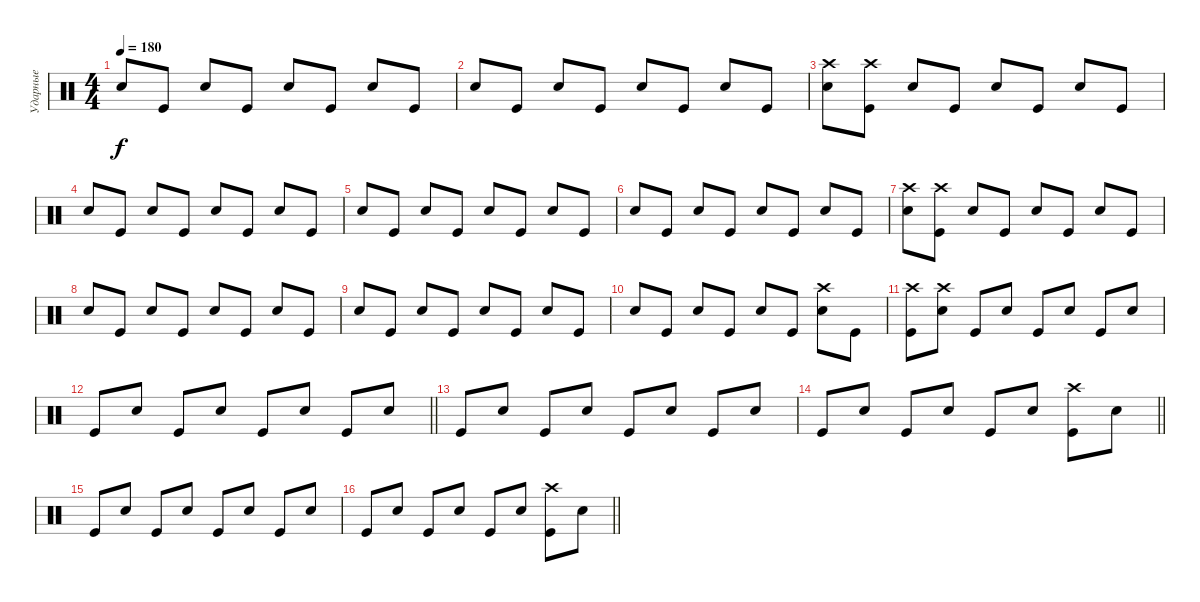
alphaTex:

\track ("Ударные" "Ударные") {instrument percussion}
\staff {score}
\articulation defaults
\ts (4 4)
\tempo 180
\clef neutral
\ks c "Snare (hit) 2".8{dy f} "Kick (hit)".8 "Snare (hit) 2".8 "Kick (hit)".8 "Snare (hit) 2".8 "Kick (hit)".8 "Snare (hit) 2".8 "Kick (hit)".8
|
"Snare (hit) 2".8 "Kick (hit)".8 "Snare (hit) 2".8 "Kick (hit)".8 "Snare (hit) 2".8 "Kick (hit)".8 "Snare (hit) 2".8 "Kick (hit)".8 |
("Crash high (hit)" "Snare (hit) 2").8 ("Crash high (hit)" "Kick (hit)").8 "Snare (hit) 2".8 "Kick (hit)".8 "Snare (hit) 2".8 "Kick (hit)".8 "Snare (hit) 2".8 "Kick (hit)".8 |
"Snare (hit) 2".8 "Kick (hit)".8 "Snare (hit) 2".8 "Kick (hit)".8 "Snare (hit) 2".8 "Kick (hit)".8 "Snare (hit) 2".8 "Kick (hit)".8 |
"Snare (hit) 2".8 "Kick (hit)".8 "Snare (hit) 2".8 "Kick (hit)".8 "Snare (hit) 2".8 "Kick (hit)".8 "Snare (hit) 2".8 "Kick (hit)".8 |
"Snare (hit) 2".8 "Kick (hit)".8 "Snare (hit) 2".8 "Kick (hit)".8 "Snare (hit) 2".8 "Kick (hit)".8 "Snare (hit) 2".8 "Kick (hit)".8 |
("Crash high (hit)" "Snare (hit) 2").8 ("Crash high (hit)" "Kick (hit)").8 "Snare (hit) 2".8 "Kick (hit)".8 "Snare (hit) 2".8 "Kick (hit)".8 "Snare (hit) 2".8 "Kick (hit)".8 |
"Snare (hit) 2".8 "Kick (hit)".8 "Snare (hit) 2".8 "Kick (hit)".8 "Snare (hit) 2".8 "Kick (hit)".8 "Snare (hit) 2".8 "Kick (hit)".8 |
"Snare (hit) 2".8 "Kick (hit)".8 "Snare (hit) 2".8 "Kick (hit)".8 "Snare (hit) 2".8 "Kick (hit)".8 "Snare (hit) 2".8 "Kick (hit)".8 |
"Snare (hit) 2".8 "Kick (hit)".8 "Snare (hit) 2".8 "Kick (hit)".8 "Snare (hit) 2".8 "Kick (hit)".8 ("Crash high (hit)" "Snare (hit) 2").8 "Kick (hit)".8 |
("Crash high (hit)" "Kick (hit)").8 ("Crash high (hit)" "Snare (hit) 2").8 "Kick (hit)".8 "Snare (hit) 2".8 "Kick (hit)".8 "Snare (hit) 2".8 "Kick (hit)".8 "Snare (hit) 2".8 |
\barLineRight lightlight "Kick (hit)".8 "Snare (hit) 2".8 "Kick (hit)".8 "Snare (hit) 2".8 "Kick (hit)".8 "Snare (hit) 2".8 "Kick (hit)".8 "Snare (hit) 2".8
|
"Kick (hit)".8 "Snare (hit) 2".8 "Kick (hit)".8 "Snare (hit) 2".8 "Kick (hit)".8 "Snare (hit) 2".8 "Kick (hit)".8 "Snare (hit) 2".8 |
\barLineRight lightlight "Kick (hit)".8 "Snare (hit) 2".8 "Kick (hit)".8 "Snare (hit) 2".8 "Kick (hit)".8 "Snare (hit) 2".8
("Crash high (hit)" "Kick (hit)").8 "Snare (hit) 2".8 |
"Kick (hit)".8 "Snare (hit) 2".8 "Kick (hit)".8 "Snare (hit) 2".8 "Kick (hit)".8 "Snare (hit) 2".8 "Kick (hit)".8 "Snare (hit) 2".8 |
\barLineRight lightlight "Kick (hit)".8 "Snare (hit) 2".8 "Kick (hit)".8 "Snare (hit) 2".8 "Kick (hit)".8 "Snare (hit) 2".8
("Crash high (hit)" "Kick (hit)").8 "Snare (hit) 2".8
